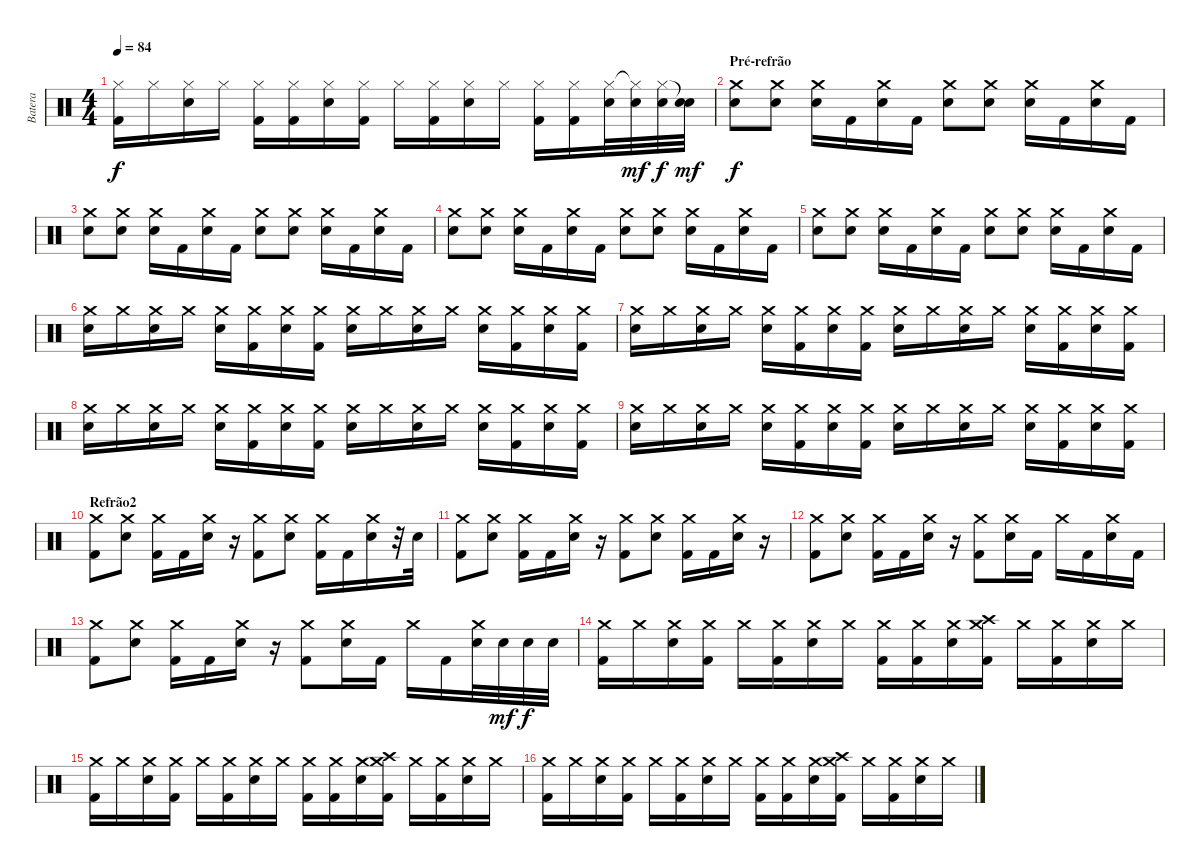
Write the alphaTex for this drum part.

\track ("Batera" "Batera") {instrument percussion}
\staff {score}
\articulation defaults
\ts (4 4)
\tempo 84
\clef neutral
\ks c
("Hi-Hat (closed)" "Kick (hit) 2").16{dy f} "Hi-Hat (closed)".16 ("Hi-Hat (closed)" "Snare (hit) 2").16 "Hi-Hat (closed)".16 ("Hi-Hat (closed)" "Kick (hit) 2").16 ("Hi-Hat (closed)" "Kick (hit) 2").16 ("Hi-Hat (closed)" "Snare (hit) 2").16 ("Hi-Hat (closed)" "Kick (hit) 2").16 "Hi-Hat (closed)".16 ("Hi-Hat (closed)" "Kick (hit) 2").16 ("Hi-Hat (closed)" "Snare (hit) 2").16 "Hi-Hat (closed)".16 ("Hi-Hat (closed)" "Kick (hit) 2").16 ("Hi-Hat (closed)" "Kick (hit) 2").16 ("Hi-Hat (closed)" "Snare (hit) 2").32 ("Hi-Hat (closed)"{t} "Snare (hit) 2").32{dy mf} ("Hi-Hat (closed)" "Snare (hit) 2").32{dy f} ("Snare (hit)"{t} "Snare (hit) 2").32{dy mf} |
\section ("" "Pré-refrão")
("Snare (hit) 2" "Crash medium (hit)").8{dy f} ("Snare (hit) 2" "Crash medium (hit)").8 ("Snare (hit) 2" "Crash medium (hit)").16 "Kick (hit) 2".16 ("Snare (hit) 2" "Crash medium (hit)").16 "Kick (hit) 2".16 ("Snare (hit) 2" "Crash medium (hit)").8 ("Snare (hit) 2" "Crash medium (hit)").8 ("Snare (hit) 2" "Crash medium (hit)").16 "Kick (hit) 2".16 ("Snare (hit) 2" "Crash medium (hit)").16 "Kick (hit) 2".16 |
("Snare (hit) 2" "Crash medium (hit)").8 ("Snare (hit) 2" "Crash medium (hit)").8 ("Snare (hit) 2" "Crash medium (hit)").16 "Kick (hit) 2".16 ("Snare (hit) 2" "Crash medium (hit)").16 "Kick (hit) 2".16 ("Snare (hit) 2" "Crash medium (hit)").8 ("Snare (hit) 2" "Crash medium (hit)").8 ("Snare (hit) 2" "Crash medium (hit)").16 "Kick (hit) 2".16 ("Snare (hit) 2" "Crash medium (hit)").16 "Kick (hit) 2".16 |
("Snare (hit) 2" "Crash medium (hit)").8 ("Snare (hit) 2" "Crash medium (hit)").8 ("Snare (hit) 2" "Crash medium (hit)").16 "Kick (hit) 2".16 ("Snare (hit) 2" "Crash medium (hit)").16 "Kick (hit) 2".16 ("Snare (hit) 2" "Crash medium (hit)").8 ("Snare (hit) 2" "Crash medium (hit)").8 ("Snare (hit) 2" "Crash medium (hit)").16 "Kick (hit) 2".16 ("Snare (hit) 2" "Crash medium (hit)").16 "Kick (hit) 2".16 |
("Snare (hit) 2" "Crash medium (hit)").8 ("Snare (hit) 2" "Crash medium (hit)").8 ("Snare (hit) 2" "Crash medium (hit)").16 "Kick (hit) 2".16 ("Snare (hit) 2" "Crash medium (hit)").16 "Kick (hit) 2".16 ("Snare (hit) 2" "Crash medium (hit)").8 ("Snare (hit) 2" "Crash medium (hit)").8 ("Snare (hit) 2" "Crash medium (hit)").16 "Kick (hit) 2".16 ("Snare (hit) 2" "Crash medium (hit)").16 "Kick (hit) 2".16 |
("Snare (hit) 2" "Crash medium (hit)").16 "Crash medium (hit)".16 ("Snare (hit) 2" "Crash medium (hit)").16 "Crash medium (hit)".16 ("Snare (hit) 2" "Crash medium (hit)").16 ("Crash medium (hit)" "Kick (hit) 2").16 ("Snare (hit) 2" "Crash medium (hit)").16 ("Crash medium (hit)" "Kick (hit) 2").16 ("Snare (hit) 2" "Crash medium (hit)").16 "Crash medium (hit)".16 ("Snare (hit) 2" "Crash medium (hit)").16 "Crash medium (hit)".16 ("Snare (hit) 2" "Crash medium (hit)").16 ("Crash medium (hit)" "Kick (hit) 2").16 ("Snare (hit) 2" "Crash medium (hit)").16 ("Crash medium (hit)" "Kick (hit) 2").16 |
("Snare (hit) 2" "Crash medium (hit)").16 "Crash medium (hit)".16 ("Snare (hit) 2" "Crash medium (hit)").16 "Crash medium (hit)".16 ("Snare (hit) 2" "Crash medium (hit)").16 ("Crash medium (hit)" "Kick (hit) 2").16 ("Snare (hit) 2" "Crash medium (hit)").16 ("Crash medium (hit)" "Kick (hit) 2").16 ("Snare (hit) 2" "Crash medium (hit)").16 "Crash medium (hit)".16 ("Snare (hit) 2" "Crash medium (hit)").16 "Crash medium (hit)".16 ("Snare (hit) 2" "Crash medium (hit)").16 ("Crash medium (hit)" "Kick (hit) 2").16 ("Snare (hit) 2" "Crash medium (hit)").16 ("Crash medium (hit)" "Kick (hit) 2").16 |
("Snare (hit) 2" "Crash medium (hit)").16 "Crash medium (hit)".16 ("Snare (hit) 2" "Crash medium (hit)").16 "Crash medium (hit)".16 ("Snare (hit) 2" "Crash medium (hit)").16 ("Crash medium (hit)" "Kick (hit) 2").16 ("Snare (hit) 2" "Crash medium (hit)").16 ("Crash medium (hit)" "Kick (hit) 2").16 ("Snare (hit) 2" "Crash medium (hit)").16 "Crash medium (hit)".16 ("Snare (hit) 2" "Crash medium (hit)").16 "Crash medium (hit)".16 ("Snare (hit) 2" "Crash medium (hit)").16 ("Crash medium (hit)" "Kick (hit) 2").16 ("Snare (hit) 2" "Crash medium (hit)").16 ("Crash medium (hit)" "Kick (hit) 2").16 |
("Snare (hit) 2" "Crash medium (hit)").16 "Crash medium (hit)".16 ("Snare (hit) 2" "Crash medium (hit)").16 "Crash medium (hit)".16 ("Snare (hit) 2" "Crash medium (hit)").16 ("Crash medium (hit)" "Kick (hit) 2").16 ("Snare (hit) 2" "Crash medium (hit)").16 ("Crash medium (hit)" "Kick (hit) 2").16 ("Snare (hit) 2" "Crash medium (hit)").16 "Crash medium (hit)".16 ("Snare (hit) 2" "Crash medium (hit)").16 "Crash medium (hit)".16 ("Snare (hit) 2" "Crash medium (hit)").16 ("Crash medium (hit)" "Kick (hit) 2").16 ("Snare (hit) 2" "Crash medium (hit)").16 ("Crash medium (hit)" "Kick (hit) 2").16 |
\section ("" "Refrão2")
("Crash medium (hit)" "Kick (hit) 2").8 ("Snare (hit) 2" "Crash medium (hit)").8 ("Crash medium (hit)" "Kick (hit) 2").16 "Kick (hit) 2".16 ("Snare (hit) 2" "Crash medium (hit)").16 r.16 ("Crash medium (hit)" "Kick (hit) 2").8 ("Snare (hit) 2" "Crash medium (hit)").8 ("Crash medium (hit)" "Kick (hit) 2").16 "Kick (hit) 2".16 ("Snare (hit) 2" "Crash medium (hit)").16 r.32 "Snare (hit) 2".32 |
("Crash medium (hit)" "Kick (hit) 2").8 ("Snare (hit) 2" "Crash medium (hit)").8 ("Crash medium (hit)" "Kick (hit) 2").16 "Kick (hit) 2".16 ("Snare (hit) 2" "Crash medium (hit)").16 r.16 ("Crash medium (hit)" "Kick (hit) 2").8 ("Snare (hit) 2" "Crash medium (hit)").8 ("Crash medium (hit)" "Kick (hit) 2").16 "Kick (hit) 2".16 ("Snare (hit) 2" "Crash medium (hit)").16 r.16 |
("Crash medium (hit)" "Kick (hit) 2").8 ("Snare (hit) 2" "Crash medium (hit)").8 ("Crash medium (hit)" "Kick (hit) 2").16 "Kick (hit) 2".16 ("Snare (hit) 2" "Crash medium (hit)").16 r.16 ("Crash medium (hit)" "Kick (hit) 2").8 ("Snare (hit) 2" "Crash medium (hit)").16 "Kick (hit) 2".16 "Crash medium (hit)".16 "Kick (hit) 2".16 ("Snare (hit) 2" "Crash medium (hit)").16 "Kick (hit) 2".16 |
("Crash medium (hit)" "Kick (hit) 2").8 ("Snare (hit) 2" "Crash medium (hit)").8 ("Crash medium (hit)" "Kick (hit) 2").16 "Kick (hit) 2".16 ("Snare (hit) 2" "Crash medium (hit)").16 r.16 ("Crash medium (hit)" "Kick (hit) 2").8 ("Snare (hit) 2" "Crash medium (hit)").16 "Kick (hit) 2".16 "Crash medium (hit)".16 "Kick (hit) 2".16 ("Snare (hit) 2" "Crash medium (hit)").32 "Snare (hit) 2".32{dy mf} "Snare (hit) 2".32{dy f} "Snare (hit) 2".32 |
("Crash medium (hit)" "Kick (hit) 2").16 "Crash medium (hit)".16 ("Snare (hit) 2" "Crash medium (hit)").16 ("Crash medium (hit)" "Kick (hit) 2").16 "Crash medium (hit)".16 ("Crash medium (hit)" "Kick (hit) 2").16 ("Snare (hit) 2" "Crash medium (hit)").16 "Crash medium (hit)".16 ("Crash medium (hit)" "Kick (hit) 2").16 ("Crash medium (hit)" "Kick (hit) 2").16 ("Snare (hit) 2" "Crash medium (hit)").16 ("Crash medium (hit)" "Crash high (hit)" "Kick (hit) 2").16 "Crash medium (hit)".16 ("Crash medium (hit)" "Kick (hit) 2").16 ("Snare (hit) 2" "Crash medium (hit)").16 "Crash medium (hit)".16 |
("Crash medium (hit)" "Kick (hit) 2").16 "Crash medium (hit)".16 ("Snare (hit) 2" "Crash medium (hit)").16 ("Crash medium (hit)" "Kick (hit) 2").16 "Crash medium (hit)".16 ("Crash medium (hit)" "Kick (hit) 2").16 ("Snare (hit) 2" "Crash medium (hit)").16 "Crash medium (hit)".16 ("Crash medium (hit)" "Kick (hit) 2").16 ("Crash medium (hit)" "Kick (hit) 2").16 ("Snare (hit) 2" "Crash medium (hit)").16 ("Crash medium (hit)" "Crash high (hit)" "Kick (hit) 2").16 "Crash medium (hit)".16 ("Crash medium (hit)" "Kick (hit) 2").16 ("Snare (hit) 2" "Crash medium (hit)").16 "Crash medium (hit)".16 |
("Crash medium (hit)" "Kick (hit) 2").16 "Crash medium (hit)".16 ("Snare (hit) 2" "Crash medium (hit)").16 ("Crash medium (hit)" "Kick (hit) 2").16 "Crash medium (hit)".16 ("Crash medium (hit)" "Kick (hit) 2").16 ("Snare (hit) 2" "Crash medium (hit)").16 "Crash medium (hit)".16 ("Crash medium (hit)" "Kick (hit) 2").16 ("Crash medium (hit)" "Kick (hit) 2").16 ("Snare (hit) 2" "Crash medium (hit)").16 ("Crash medium (hit)" "Crash high (hit)" "Kick (hit) 2").16 "Crash medium (hit)".16 ("Crash medium (hit)" "Kick (hit) 2").16 ("Snare (hit) 2" "Crash medium (hit)").16 "Crash medium (hit)".16
